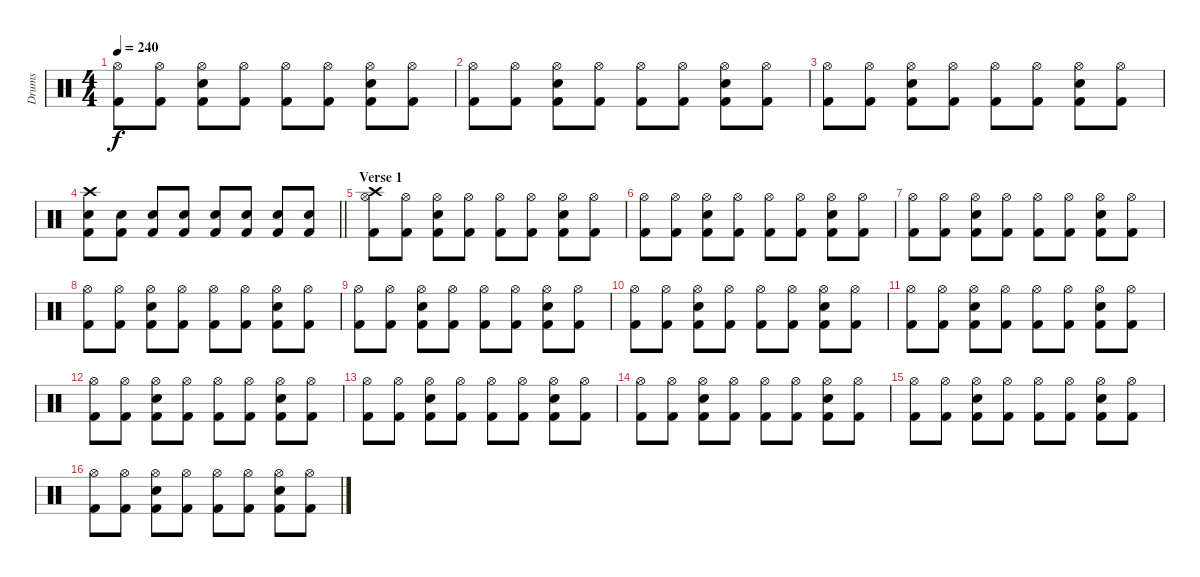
\track ("Drums" "Drums") {instrument percussion}
\staff {score}
\articulation defaults
\ts (4 4)
\tempo 240
\clef neutral
\ks c
("Kick (hit) 2" "Hi-Hat (open)").8{dy f} ("Kick (hit) 2" "Hi-Hat (open)").8 ("Kick (hit) 2" "Snare (hit) 2" "Hi-Hat (open)").8 ("Kick (hit) 2" "Hi-Hat (open)").8 ("Kick (hit) 2" "Hi-Hat (open)").8 ("Kick (hit) 2" "Hi-Hat (open)").8 ("Kick (hit) 2" "Snare (hit) 2" "Hi-Hat (open)").8 ("Kick (hit) 2" "Hi-Hat (open)").8 |
("Kick (hit) 2" "Hi-Hat (open)").8 ("Kick (hit) 2" "Hi-Hat (open)").8 ("Kick (hit) 2" "Snare (hit) 2" "Hi-Hat (open)").8 ("Kick (hit) 2" "Hi-Hat (open)").8 ("Kick (hit) 2" "Hi-Hat (open)").8 ("Kick (hit) 2" "Hi-Hat (open)").8 ("Kick (hit) 2" "Snare (hit) 2" "Hi-Hat (open)").8 ("Kick (hit) 2" "Hi-Hat (open)").8 |
("Kick (hit) 2" "Hi-Hat (open)").8 ("Kick (hit) 2" "Hi-Hat (open)").8 ("Kick (hit) 2" "Snare (hit) 2" "Hi-Hat (open)").8 ("Kick (hit) 2" "Hi-Hat (open)").8 ("Kick (hit) 2" "Hi-Hat (open)").8 ("Kick (hit) 2" "Hi-Hat (open)").8 ("Kick (hit) 2" "Snare (hit) 2" "Hi-Hat (open)").8 ("Kick (hit) 2" "Hi-Hat (open)").8 |
\barLineRight lightlight
("Crash high (hit)" "Snare (hit) 2" "Kick (hit) 2").8 ("Snare (hit) 2" "Kick (hit) 2").8 ("Snare (hit) 2" "Kick (hit) 2").8 ("Snare (hit) 2" "Kick (hit) 2").8 ("Snare (hit) 2" "Kick (hit) 2").8 ("Snare (hit) 2" "Kick (hit) 2").8 ("Snare (hit) 2" "Kick (hit) 2").8 ("Snare (hit) 2" "Kick (hit) 2").8 |
\section ("" "Verse 1")
("Kick (hit) 2" "Hi-Hat (open)" "Crash high (hit)").8 ("Kick (hit) 2" "Hi-Hat (open)").8 ("Kick (hit) 2" "Snare (hit) 2" "Hi-Hat (open)").8 ("Kick (hit) 2" "Hi-Hat (open)").8 ("Kick (hit) 2" "Hi-Hat (open)").8 ("Kick (hit) 2" "Hi-Hat (open)").8 ("Kick (hit) 2" "Snare (hit) 2" "Hi-Hat (open)").8 ("Kick (hit) 2" "Hi-Hat (open)").8 |
("Kick (hit) 2" "Hi-Hat (open)").8 ("Kick (hit) 2" "Hi-Hat (open)").8 ("Kick (hit) 2" "Snare (hit) 2" "Hi-Hat (open)").8 ("Kick (hit) 2" "Hi-Hat (open)").8 ("Kick (hit) 2" "Hi-Hat (open)").8 ("Kick (hit) 2" "Hi-Hat (open)").8 ("Kick (hit) 2" "Snare (hit) 2" "Hi-Hat (open)").8 ("Kick (hit) 2" "Hi-Hat (open)").8 |
("Kick (hit) 2" "Hi-Hat (open)").8 ("Kick (hit) 2" "Hi-Hat (open)").8 ("Kick (hit) 2" "Snare (hit) 2" "Hi-Hat (open)").8 ("Kick (hit) 2" "Hi-Hat (open)").8 ("Kick (hit) 2" "Hi-Hat (open)").8 ("Kick (hit) 2" "Hi-Hat (open)").8 ("Kick (hit) 2" "Snare (hit) 2" "Hi-Hat (open)").8 ("Kick (hit) 2" "Hi-Hat (open)").8 |
("Kick (hit) 2" "Hi-Hat (open)").8 ("Kick (hit) 2" "Hi-Hat (open)").8 ("Kick (hit) 2" "Snare (hit) 2" "Hi-Hat (open)").8 ("Kick (hit) 2" "Hi-Hat (open)").8 ("Kick (hit) 2" "Hi-Hat (open)").8 ("Kick (hit) 2" "Hi-Hat (open)").8 ("Kick (hit) 2" "Snare (hit) 2" "Hi-Hat (open)").8 ("Kick (hit) 2" "Hi-Hat (open)").8 |
("Kick (hit) 2" "Hi-Hat (open)").8 ("Kick (hit) 2" "Hi-Hat (open)").8 ("Kick (hit) 2" "Snare (hit) 2" "Hi-Hat (open)").8 ("Kick (hit) 2" "Hi-Hat (open)").8 ("Kick (hit) 2" "Hi-Hat (open)").8 ("Kick (hit) 2" "Hi-Hat (open)").8 ("Kick (hit) 2" "Snare (hit) 2" "Hi-Hat (open)").8 ("Kick (hit) 2" "Hi-Hat (open)").8 |
("Kick (hit) 2" "Hi-Hat (open)").8 ("Kick (hit) 2" "Hi-Hat (open)").8 ("Kick (hit) 2" "Snare (hit) 2" "Hi-Hat (open)").8 ("Kick (hit) 2" "Hi-Hat (open)").8 ("Kick (hit) 2" "Hi-Hat (open)").8 ("Kick (hit) 2" "Hi-Hat (open)").8 ("Kick (hit) 2" "Snare (hit) 2" "Hi-Hat (open)").8 ("Kick (hit) 2" "Hi-Hat (open)").8 |
("Kick (hit) 2" "Hi-Hat (open)").8 ("Kick (hit) 2" "Hi-Hat (open)").8 ("Kick (hit) 2" "Snare (hit) 2" "Hi-Hat (open)").8 ("Kick (hit) 2" "Hi-Hat (open)").8 ("Kick (hit) 2" "Hi-Hat (open)").8 ("Kick (hit) 2" "Hi-Hat (open)").8 ("Kick (hit) 2" "Snare (hit) 2" "Hi-Hat (open)").8 ("Kick (hit) 2" "Hi-Hat (open)").8 |
("Kick (hit) 2" "Hi-Hat (open)").8 ("Kick (hit) 2" "Hi-Hat (open)").8 ("Kick (hit) 2" "Snare (hit) 2" "Hi-Hat (open)").8 ("Kick (hit) 2" "Hi-Hat (open)").8 ("Kick (hit) 2" "Hi-Hat (open)").8 ("Kick (hit) 2" "Hi-Hat (open)").8 ("Kick (hit) 2" "Snare (hit) 2" "Hi-Hat (open)").8 ("Kick (hit) 2" "Hi-Hat (open)").8 |
("Kick (hit) 2" "Hi-Hat (open)").8 ("Kick (hit) 2" "Hi-Hat (open)").8 ("Kick (hit) 2" "Snare (hit) 2" "Hi-Hat (open)").8 ("Kick (hit) 2" "Hi-Hat (open)").8 ("Kick (hit) 2" "Hi-Hat (open)").8 ("Kick (hit) 2" "Hi-Hat (open)").8 ("Kick (hit) 2" "Snare (hit) 2" "Hi-Hat (open)").8 ("Kick (hit) 2" "Hi-Hat (open)").8 |
("Kick (hit) 2" "Hi-Hat (open)").8 ("Kick (hit) 2" "Hi-Hat (open)").8 ("Kick (hit) 2" "Snare (hit) 2" "Hi-Hat (open)").8 ("Kick (hit) 2" "Hi-Hat (open)").8 ("Kick (hit) 2" "Hi-Hat (open)").8 ("Kick (hit) 2" "Hi-Hat (open)").8 ("Kick (hit) 2" "Snare (hit) 2" "Hi-Hat (open)").8 ("Kick (hit) 2" "Hi-Hat (open)").8 |
("Kick (hit) 2" "Hi-Hat (open)").8 ("Kick (hit) 2" "Hi-Hat (open)").8 ("Kick (hit) 2" "Snare (hit) 2" "Hi-Hat (open)").8 ("Kick (hit) 2" "Hi-Hat (open)").8 ("Kick (hit) 2" "Hi-Hat (open)").8 ("Kick (hit) 2" "Hi-Hat (open)").8 ("Kick (hit) 2" "Snare (hit) 2" "Hi-Hat (open)").8 ("Kick (hit) 2" "Hi-Hat (open)").8 |
("Kick (hit) 2" "Hi-Hat (open)").8 ("Kick (hit) 2" "Hi-Hat (open)").8 ("Kick (hit) 2" "Snare (hit) 2" "Hi-Hat (open)").8 ("Kick (hit) 2" "Hi-Hat (open)").8 ("Kick (hit) 2" "Hi-Hat (open)").8 ("Kick (hit) 2" "Hi-Hat (open)").8 ("Kick (hit) 2" "Snare (hit) 2" "Hi-Hat (open)").8 ("Kick (hit) 2" "Hi-Hat (open)").8
